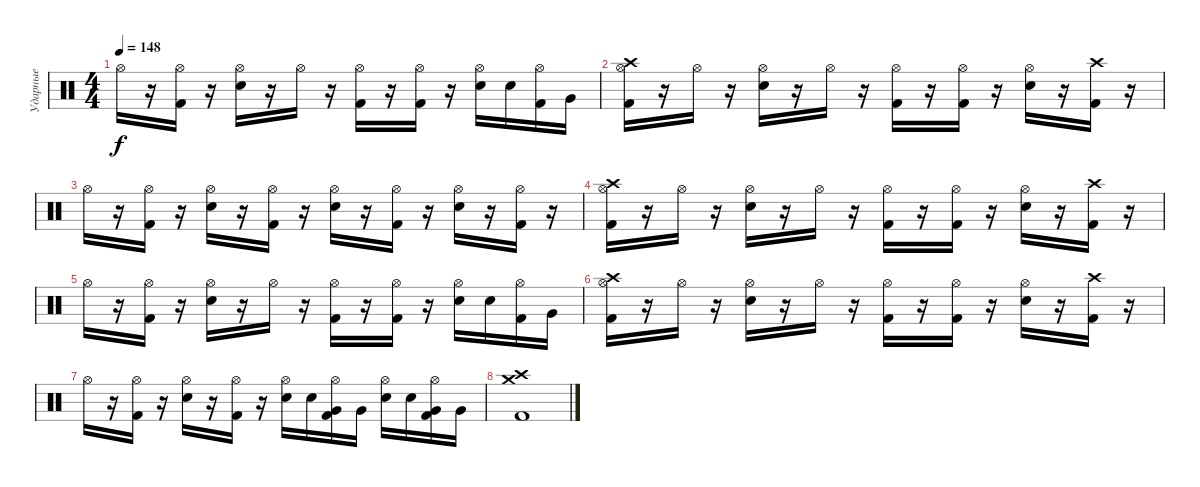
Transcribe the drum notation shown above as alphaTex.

\track ("Ударные" "Ударные") {instrument percussion}
\staff {score}
\articulation defaults
\ts (4 4)
\tempo 148
\clef neutral
\ks c "Hi-Hat (open)".16{dy f}
r.16 ("Hi-Hat (open)" "Kick (hit) 2").16 r.16 ("Hi-Hat (open)" "Electric Snare (hit)").16 r.16 "Hi-Hat (open)".16 r.16 ("Hi-Hat (open)" "Kick (hit) 2").16 r.16 ("Hi-Hat (open)" "Kick (hit) 2").16 r.16 ("Hi-Hat (open)" "Electric Snare (hit)").16 "Electric Snare (hit)".16 ("Hi-Hat (open)" "Kick (hit) 2").16 "Very Low Tom (hit)".16 |
("Crash high (hit)" "Hi-Hat (open)" "Kick (hit) 2").16 r.16 "Hi-Hat (open)".16 r.16 ("Hi-Hat (open)" "Electric Snare (hit)").16 r.16 "Hi-Hat (open)".16 r.16 ("Hi-Hat (open)" "Kick (hit) 2").16 r.16 ("Hi-Hat (open)" "Kick (hit) 2").16 r.16 ("Hi-Hat (open)" "Electric Snare (hit)").16 r.16 ("Crash high (hit)" "Kick (hit) 2").16 r.16 |
"Hi-Hat (open)".16 r.16 ("Hi-Hat (open)" "Kick (hit) 2").16 r.16 ("Hi-Hat (open)" "Electric Snare (hit)").16 r.16 ("Hi-Hat (open)" "Kick (hit) 2").16 r.16 ("Hi-Hat (open)" "Electric Snare (hit)").16 r.16 ("Hi-Hat (open)" "Kick (hit) 2").16 r.16 ("Hi-Hat (open)" "Electric Snare (hit)").16 r.16 ("Hi-Hat (open)" "Kick (hit) 2").16 r.16 |
("Crash high (hit)" "Hi-Hat (open)" "Kick (hit) 2").16 r.16 "Hi-Hat (open)".16 r.16 ("Hi-Hat (open)" "Electric Snare (hit)").16 r.16 "Hi-Hat (open)".16 r.16 ("Hi-Hat (open)" "Kick (hit) 2").16 r.16 ("Hi-Hat (open)" "Kick (hit) 2").16 r.16 ("Hi-Hat (open)" "Electric Snare (hit)").16 r.16 ("Crash high (hit)" "Kick (hit) 2").16 r.16 |
"Hi-Hat (open)".16 r.16 ("Hi-Hat (open)" "Kick (hit) 2").16 r.16 ("Hi-Hat (open)" "Electric Snare (hit)").16 r.16 "Hi-Hat (open)".16 r.16 ("Hi-Hat (open)" "Kick (hit) 2").16 r.16 ("Hi-Hat (open)" "Kick (hit) 2").16 r.16 ("Hi-Hat (open)" "Electric Snare (hit)").16 "Electric Snare (hit)".16 ("Hi-Hat (open)" "Kick (hit) 2").16 "Very Low Tom (hit)".16 |
("Crash high (hit)" "Hi-Hat (open)" "Kick (hit) 2").16 r.16 "Hi-Hat (open)".16 r.16 ("Hi-Hat (open)" "Electric Snare (hit)").16 r.16 "Hi-Hat (open)".16 r.16 ("Hi-Hat (open)" "Kick (hit) 2").16 r.16 ("Hi-Hat (open)" "Kick (hit) 2").16 r.16 ("Hi-Hat (open)" "Electric Snare (hit)").16 r.16 ("Crash high (hit)" "Kick (hit) 2").16 r.16 |
"Hi-Hat (open)".16 r.16 ("Hi-Hat (open)" "Kick (hit) 2").16 r.16 ("Hi-Hat (open)" "Electric Snare (hit)").16 r.16 ("Hi-Hat (open)" "Kick (hit) 2").16 r.16 ("Hi-Hat (open)" "Electric Snare (hit)").16 "Electric Snare (hit)".16 ("Hi-Hat (open)" "Very Low Tom (hit)" "Kick (hit) 2").16 "Very Low Tom (hit)".16 ("Hi-Hat (open)" "Electric Snare (hit)").16 "Electric Snare (hit)".16 ("Hi-Hat (open)" "Very Low Tom (hit)" "Kick (hit) 2").16 "Very Low Tom (hit)".16 |
("Crash high (hit)" "Crash medium (hit)" "Kick (hit) 2").1
